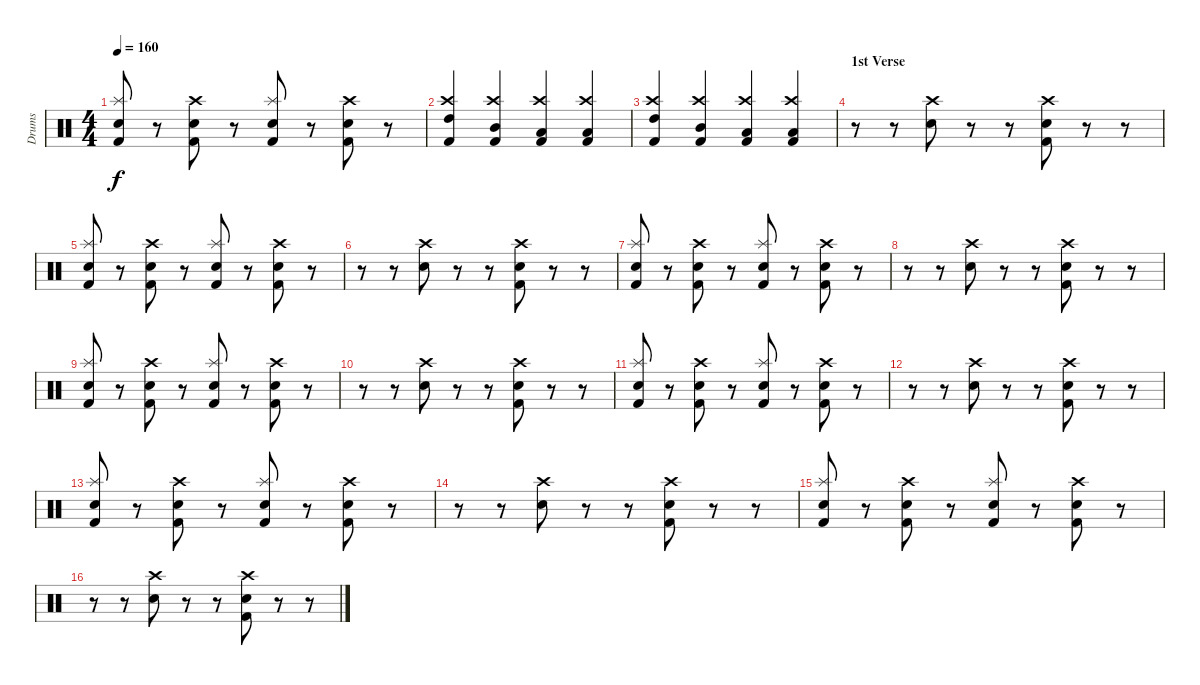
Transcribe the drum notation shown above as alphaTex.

\track ("Drums" "Drums") {instrument percussion}
\staff {score}
\articulation defaults
\ts (4 4)
\tempo 160
\clef neutral
\ks c
("Kick (hit) 2" "Splash (hit)" "Snare (hit) 2").8{dy f} r.8 ("Kick (hit) 2" "Snare (hit) 2" "Crash high (hit)").8 r.8 ("Kick (hit) 2" "Snare (hit) 2" "Splash (hit)").8 r.8 ("Kick (hit) 2" "Crash high (hit)" "Snare (hit) 2").8 r.8 |
("High Tom (hit)" "Crash high (hit)" "Kick (hit) 2").4 ("Mid Tom (hit)" "Kick (hit) 2" "Crash high (hit)").4 ("Kick (hit) 2" "Low Tom (hit)" "Crash high (hit)").4 ("Kick (hit) 2" "Crash high (hit)" "Low Floor Tom (hit)").4 |
("High Tom (hit)" "Crash high (hit)" "Kick (hit) 2").4 ("Mid Tom (hit)" "Kick (hit) 2" "Crash high (hit)").4 ("Kick (hit) 2" "Low Tom (hit)" "Crash high (hit)").4 ("Kick (hit) 2" "Crash high (hit)" "Low Floor Tom (hit)").4 |
\section ("" "1st Verse")
r.8 r.8 ("Crash high (hit)" "Snare (hit) 2").8 r.8 r.8 ("Kick (hit) 2" "Snare (hit) 2" "Crash high (hit)").8 r.8 r.8 |
("Kick (hit) 2" "Splash (hit)" "Snare (hit) 2").8 r.8 ("Kick (hit) 2" "Snare (hit) 2" "Crash high (hit)").8 r.8 ("Kick (hit) 2" "Snare (hit) 2" "Splash (hit)").8 r.8 ("Kick (hit) 2" "Crash high (hit)" "Snare (hit) 2").8 r.8 |
r.8 r.8 ("Crash high (hit)" "Snare (hit) 2").8 r.8 r.8 ("Kick (hit) 2" "Snare (hit) 2" "Crash high (hit)").8 r.8 r.8 |
("Kick (hit) 2" "Splash (hit)" "Snare (hit) 2").8 r.8 ("Kick (hit) 2" "Snare (hit) 2" "Crash high (hit)").8 r.8 ("Kick (hit) 2" "Snare (hit) 2" "Splash (hit)").8 r.8 ("Kick (hit) 2" "Crash high (hit)" "Snare (hit) 2").8 r.8 |
r.8 r.8 ("Crash high (hit)" "Snare (hit) 2").8 r.8 r.8 ("Kick (hit) 2" "Snare (hit) 2" "Crash high (hit)").8 r.8 r.8 |
("Kick (hit) 2" "Splash (hit)" "Snare (hit) 2").8 r.8 ("Kick (hit) 2" "Snare (hit) 2" "Crash high (hit)").8 r.8 ("Kick (hit) 2" "Snare (hit) 2" "Splash (hit)").8 r.8 ("Kick (hit) 2" "Crash high (hit)" "Snare (hit) 2").8 r.8 |
r.8 r.8 ("Crash high (hit)" "Snare (hit) 2").8 r.8 r.8 ("Kick (hit) 2" "Snare (hit) 2" "Crash high (hit)").8 r.8 r.8 |
("Kick (hit) 2" "Splash (hit)" "Snare (hit) 2").8 r.8 ("Kick (hit) 2" "Snare (hit) 2" "Crash high (hit)").8 r.8 ("Kick (hit) 2" "Snare (hit) 2" "Splash (hit)").8 r.8 ("Kick (hit) 2" "Crash high (hit)" "Snare (hit) 2").8 r.8 |
r.8 r.8 ("Crash high (hit)" "Snare (hit) 2").8 r.8 r.8 ("Kick (hit) 2" "Snare (hit) 2" "Crash high (hit)").8 r.8 r.8 |
("Kick (hit) 2" "Splash (hit)" "Snare (hit) 2").8 r.8 ("Kick (hit) 2" "Snare (hit) 2" "Crash high (hit)").8 r.8 ("Kick (hit) 2" "Snare (hit) 2" "Splash (hit)").8 r.8 ("Kick (hit) 2" "Crash high (hit)" "Snare (hit) 2").8 r.8 |
r.8 r.8 ("Crash high (hit)" "Snare (hit) 2").8 r.8 r.8 ("Kick (hit) 2" "Snare (hit) 2" "Crash high (hit)").8 r.8 r.8 |
("Kick (hit) 2" "Splash (hit)" "Snare (hit) 2").8 r.8 ("Kick (hit) 2" "Snare (hit) 2" "Crash high (hit)").8 r.8 ("Kick (hit) 2" "Snare (hit) 2" "Splash (hit)").8 r.8 ("Kick (hit) 2" "Crash high (hit)" "Snare (hit) 2").8 r.8 |
r.8 r.8 ("Crash high (hit)" "Snare (hit) 2").8 r.8 r.8 ("Kick (hit) 2" "Snare (hit) 2" "Crash high (hit)").8 r.8 r.8
